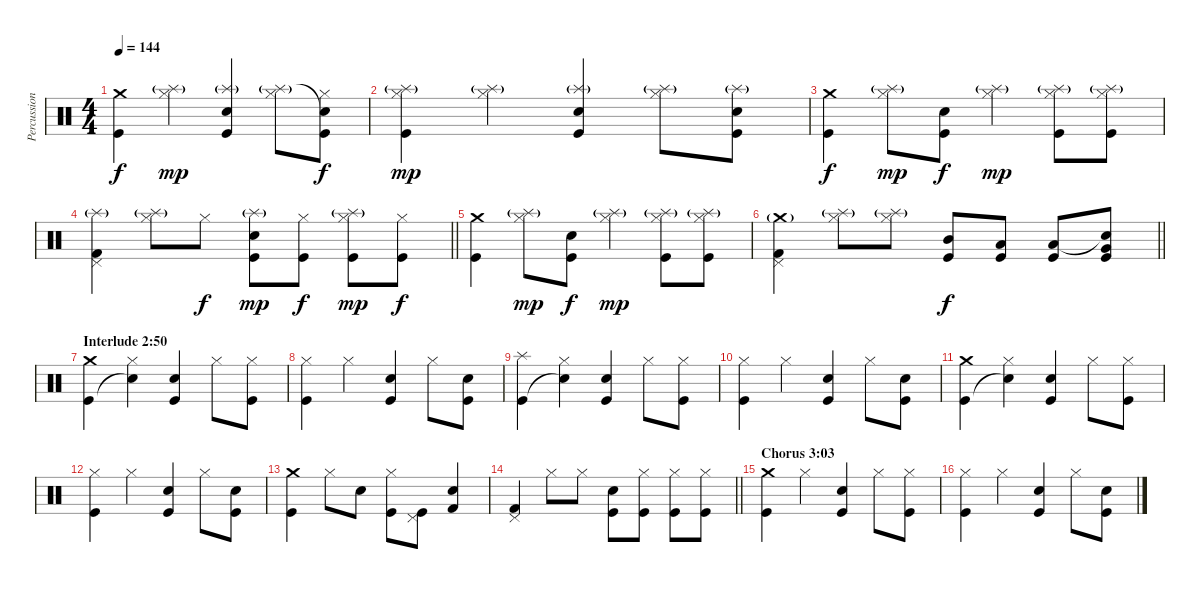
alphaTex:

\track ("Percussion" "Percussion") {instrument percussion}
\staff {score}
\articulation defaults
\ts (4 4)
\tempo 144
\clef neutral
\ks c
("Crash medium (hit)" "Kick (hit)").4{dy f} ("Hi-Hat (closed)" "Splash (hit)"{g}).4{dy mp} ("Electric Snare (hit)" "Splash (hit)"{g} "Kick (hit)").4 ("Hi-Hat (closed)" "Splash (hit)"{g}).8 ("Hi-Hat (closed)" "Snare (hit)"{t} "Kick (hit)").8{dy f} |
("Hi-Hat (closed)" "Splash (hit)"{g} "Kick (hit)").4{dy mp} ("Hi-Hat (closed)" "Splash (hit)"{g}).4 ("Electric Snare (hit)" "Splash (hit)"{g} "Kick (hit)").4 ("Hi-Hat (closed)" "Splash (hit)"{g}).8 ("Electric Snare (hit)" "Splash (hit)"{g} "Kick (hit)").8 |
("Crash medium (hit)" "Kick (hit)").4{dy f} ("Hi-Hat (closed)" "Splash (hit)"{g}).8{dy mp} ("Electric Snare (hit)" "Kick (hit)").8{dy f} ("Hi-Hat (closed)" "Splash (hit)"{g}).4{dy mp} ("Hi-Hat (closed)" "Splash (hit)"{g} "Kick (hit)").8 ("Hi-Hat (closed)" "Splash (hit)"{g} "Kick (hit)").8 |
\barLineRight lightlight
("Pedal Hi-Hat (hit)" "Splash (hit)"{g} "Kick (hit) 2").4 ("Hi-Hat (closed)" "Splash (hit)"{g}).8 "Hi-Hat (closed)".8{dy f} ("Electric Snare (hit)" "Splash (hit)"{g} "Kick (hit)").8{dy mp} ("Hi-Hat (closed)" "Kick (hit)").8{dy f} ("Hi-Hat (closed)" "Splash (hit)"{g} "Kick (hit)").8{dy mp} ("Hi-Hat (closed)" "Kick (hit)").8{dy f} |
("Crash medium (hit)" "Kick (hit)").4 ("Hi-Hat (closed)" "Splash (hit)"{g}).8{dy mp} ("Electric Snare (hit)" "Kick (hit)").8{dy f} ("Hi-Hat (closed)" "Splash (hit)"{g}).4{dy mp} ("Hi-Hat (closed)" "Splash (hit)"{g} "Kick (hit)").8 ("Hi-Hat (closed)" "Splash (hit)"{g} "Kick (hit)").8 |
\barLineRight lightlight
("Crash medium (hit)"{g} "Pedal Hi-Hat (hit)" "Kick (hit) 2").4 ("Splash (hit)"{g} "Hi-Hat (closed)").8 ("Splash (hit)"{g} "Hi-Hat (closed)").8 ("Mid Tom (hit)" "Kick (hit)").8{dy f} ("Low Tom (hit)" "Kick (hit)").8 ("Low Tom (hit)" "Kick (hit)").8 ("Snare (hit)"{t} "Very Low Tom (hit)" "Kick (hit)").8 |
\section ("" "Interlude 2:50")
("Crash medium (hit)" "Kick (hit)").4 ("Hi-Hat (closed)" "Snare (hit)"{t}).4 ("Electric Snare (hit)" "Kick (hit)").4 "Hi-Hat (closed)".8 ("Hi-Hat (closed)" "Kick (hit)").8 |
("Hi-Hat (closed)" "Kick (hit)").4 "Hi-Hat (closed)".4 ("Electric Snare (hit)" "Kick (hit)").4 "Hi-Hat (closed)".8 ("Electric Snare (hit)" "Kick (hit)").8 |
("Splash (hit)" "Kick (hit)").4 ("Hi-Hat (closed)" "Snare (hit)"{t}).4 ("Electric Snare (hit)" "Kick (hit)").4 "Hi-Hat (closed)".8 ("Hi-Hat (closed)" "Kick (hit)").8 |
("Hi-Hat (closed)" "Kick (hit)").4 "Hi-Hat (closed)".4 ("Electric Snare (hit)" "Kick (hit)").4 "Hi-Hat (closed)".8 ("Electric Snare (hit)" "Kick (hit)").8 |
("Crash medium (hit)" "Kick (hit)").4 ("Hi-Hat (closed)" "Snare (hit)"{t}).4 ("Electric Snare (hit)" "Kick (hit)").4 "Hi-Hat (closed)".8 ("Hi-Hat (closed)" "Kick (hit)").8 |
("Hi-Hat (closed)" "Kick (hit)").4 "Hi-Hat (closed)".4 ("Electric Snare (hit)" "Kick (hit)").4 "Hi-Hat (closed)".8 ("Electric Snare (hit)" "Kick (hit)").8 |
("Crash medium (hit)" "Kick (hit)").4 "Hi-Hat (closed)".8 "Electric Snare (hit)".8 ("Hi-Hat (closed)" "Kick (hit)").8 ("Pedal Hi-Hat (hit)" "Kick (hit)").8 ("Electric Snare (hit)" "Kick (hit) 2").4 |
\barLineRight lightlight
("Pedal Hi-Hat (hit)" "Kick (hit) 2").4 "Hi-Hat (closed)".8 "Hi-Hat (closed)".8 ("Electric Snare (hit)" "Kick (hit)").8 ("Hi-Hat (closed)" "Kick (hit)").8 ("Hi-Hat (closed)" "Kick (hit)").8 ("Hi-Hat (closed)" "Kick (hit)").8 |
\section ("" "Chorus 3:03")
("Crash medium (hit)" "Kick (hit)").4 "Hi-Hat (closed)".4 ("Electric Snare (hit)" "Kick (hit)").4 "Hi-Hat (closed)".8 ("Hi-Hat (closed)" "Kick (hit)").8 |
("Hi-Hat (closed)" "Kick (hit)").4 "Hi-Hat (closed)".4 ("Electric Snare (hit)" "Kick (hit)").4 "Hi-Hat (closed)".8 ("Electric Snare (hit)" "Kick (hit)").8
